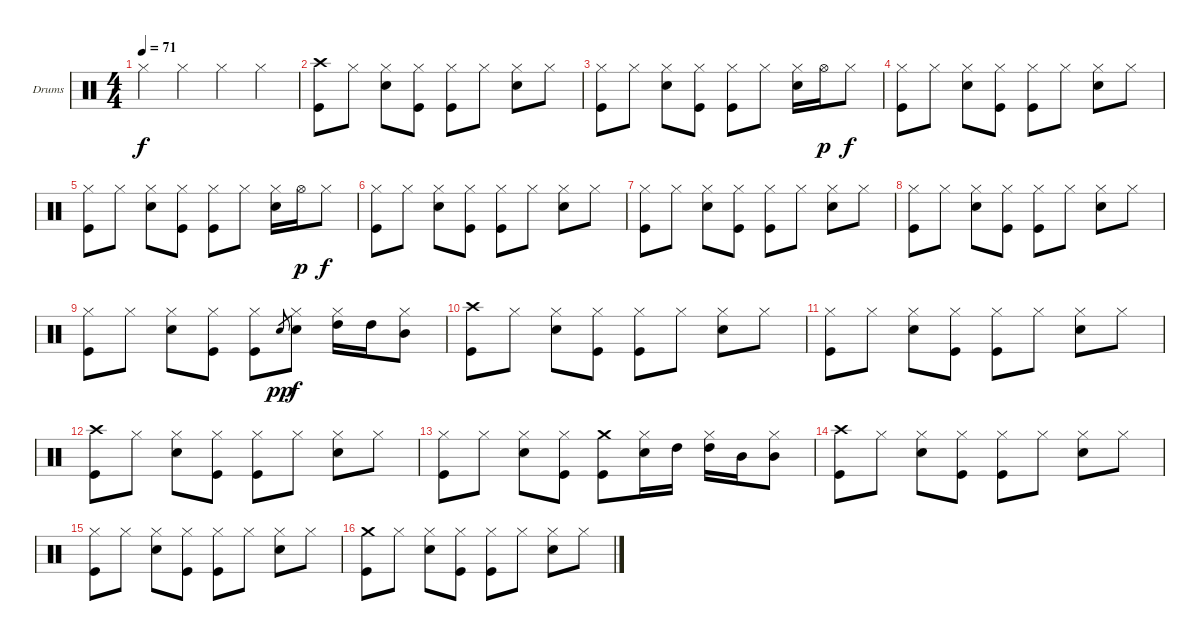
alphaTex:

\bracketExtendMode groupsimilarinstruments
\firstSystemTrackNameOrientation horizontal
\otherSystemsTrackNameOrientation horizontal
\track ("Барабаны" "Drums") {instrument percussion}
\staff {score}
\articulation defaults
\ts (4 4)
\tempo 71
\clef neutral
\scale
0.333333
\ks c "Hi-Hat (closed)".4{dy f} "Hi-Hat (closed)".4 "Hi-Hat (closed)".4 "Hi-Hat (closed)".4
|
\scale
0.333333 ("Crash high (hit)" "Kick (hit)").8 "Hi-Hat (closed)".8 ("Hi-Hat (closed)" "Snare (hit) 2").8 ("Hi-Hat (closed)" "Kick (hit)").8 ("Hi-Hat (closed)" "Kick (hit)").8 "Hi-Hat (closed)".8 ("Hi-Hat (closed)" "Snare (hit) 2").8 "Hi-Hat (closed)".8 |
\scale
0.333333 ("Hi-Hat (closed)" "Kick (hit)").8 "Hi-Hat (closed)".8 ("Hi-Hat (closed)" "Snare (hit) 2").8 ("Hi-Hat (closed)" "Kick (hit)").8 ("Hi-Hat (closed)" "Kick (hit)").8 "Hi-Hat (closed)".8 ("Hi-Hat (closed)" "Snare (hit) 2").16 "Hi-Hat (open)".16{dy p} "Hi-Hat (closed)".8{dy f} |
\scale
0.333333 ("Hi-Hat (closed)" "Kick (hit)").8 "Hi-Hat (closed)".8 ("Hi-Hat (closed)" "Snare (hit) 2").8 ("Hi-Hat (closed)" "Kick (hit)").8 ("Hi-Hat (closed)" "Kick (hit)").8 "Hi-Hat (closed)".8 ("Hi-Hat (closed)" "Snare (hit) 2").8 "Hi-Hat (closed)".8 |
\scale
0.333333 ("Hi-Hat (closed)" "Kick (hit)").8 "Hi-Hat (closed)".8 ("Hi-Hat (closed)" "Snare (hit) 2").8 ("Hi-Hat (closed)" "Kick (hit)").8 ("Hi-Hat (closed)" "Kick (hit)").8 "Hi-Hat (closed)".8 ("Hi-Hat (closed)" "Snare (hit) 2").16 "Hi-Hat (open)".16{dy p} "Hi-Hat (closed)".8{dy f} |
\scale
0.333333 ("Hi-Hat (closed)" "Kick (hit)").8 "Hi-Hat (closed)".8 ("Hi-Hat (closed)" "Snare (hit) 2").8 ("Hi-Hat (closed)" "Kick (hit)").8 ("Hi-Hat (closed)" "Kick (hit)").8 "Hi-Hat (closed)".8 ("Hi-Hat (closed)" "Snare (hit) 2").8 "Hi-Hat (closed)".8 |
\scale
0.333333 ("Hi-Hat (closed)" "Kick (hit)").8 "Hi-Hat (closed)".8 ("Hi-Hat (closed)" "Snare (hit) 2").8 ("Hi-Hat (closed)" "Kick (hit)").8 ("Hi-Hat (closed)" "Kick (hit)").8 "Hi-Hat (closed)".8 ("Hi-Hat (closed)" "Snare (hit) 2").8 "Hi-Hat (closed)".8 |
\scale
0.333333 ("Hi-Hat (closed)" "Kick (hit)").8 "Hi-Hat (closed)".8 ("Hi-Hat (closed)" "Snare (hit) 2").8 ("Hi-Hat (closed)" "Kick (hit)").8 ("Hi-Hat (closed)" "Kick (hit)").8 "Hi-Hat (closed)".8 ("Hi-Hat (closed)" "Snare (hit) 2").8 "Hi-Hat (closed)".8 |
\scale
0.333333 ("Hi-Hat (closed)" "Kick (hit)").8 "Hi-Hat (closed)".8 ("Hi-Hat (closed)" "Snare (hit) 2").8 ("Hi-Hat (closed)" "Kick (hit)").8 ("Hi-Hat (closed)" "Kick (hit)").8 "Snare (hit) 2".8{gr dy pp} ("Hi-Hat (closed)" "Snare (hit) 2").8{dy f} ("Hi-Hat (closed)" "High Tom (hit)").16 "High Tom (hit)".16 ("Hi-Hat (closed)" "Mid Tom (hit)").8 |
\scale
0.333333 ("Crash high (hit)" "Kick (hit)").8 "Hi-Hat (closed)".8 ("Hi-Hat (closed)" "Snare (hit) 2").8 ("Hi-Hat (closed)" "Kick (hit)").8 ("Hi-Hat (closed)" "Kick (hit)").8 "Hi-Hat (closed)".8 ("Hi-Hat (closed)" "Snare (hit) 2").8 "Hi-Hat (closed)".8 |
\scale
0.333333 ("Hi-Hat (closed)" "Kick (hit)").8 "Hi-Hat (closed)".8 ("Hi-Hat (closed)" "Snare (hit) 2").8 ("Hi-Hat (closed)" "Kick (hit)").8 ("Hi-Hat (closed)" "Kick (hit)").8 "Hi-Hat (closed)".8 ("Hi-Hat (closed)" "Snare (hit) 2").8 "Hi-Hat (closed)".8 |
\scale
0.333333 ("Crash high (hit)" "Kick (hit)").8 "Hi-Hat (closed)".8 ("Hi-Hat (closed)" "Snare (hit) 2").8 ("Hi-Hat (closed)" "Kick (hit)").8 ("Hi-Hat (closed)" "Kick (hit)").8 "Hi-Hat (closed)".8 ("Hi-Hat (closed)" "Snare (hit) 2").8 "Hi-Hat (closed)".8 |
\scale
0.333333 ("Hi-Hat (closed)" "Kick (hit)").8 "Hi-Hat (closed)".8 ("Hi-Hat (closed)" "Snare (hit) 2").8 ("Hi-Hat (closed)" "Kick (hit)").8 ("Crash medium (hit)" "Kick (hit)").8 ("Hi-Hat (closed)" "Snare (hit) 2").16 "High Tom (hit)".16 ("Hi-Hat (closed)" "High Tom (hit)").16 "Mid Tom (hit)".16 ("Hi-Hat (closed)" "Mid Tom (hit)").8 |
\scale
0.333333 ("Crash high (hit)" "Kick (hit)").8 "Hi-Hat (closed)".8 ("Hi-Hat (closed)" "Snare (hit) 2").8 ("Hi-Hat (closed)" "Kick (hit)").8 ("Hi-Hat (closed)" "Kick (hit)").8 "Hi-Hat (closed)".8 ("Hi-Hat (closed)" "Snare (hit) 2").8 "Hi-Hat (closed)".8 |
\scale
0.333333 ("Hi-Hat (closed)" "Kick (hit)").8 "Hi-Hat (closed)".8 ("Hi-Hat (closed)" "Snare (hit) 2").8 ("Hi-Hat (closed)" "Kick (hit)").8 ("Hi-Hat (closed)" "Kick (hit)").8 "Hi-Hat (closed)".8 ("Hi-Hat (closed)" "Snare (hit) 2").8 "Hi-Hat (closed)".8 |
\scale
0.333333 ("Crash medium (hit)" "Kick (hit)").8 "Hi-Hat (closed)".8 ("Hi-Hat (closed)" "Snare (hit) 2").8 ("Hi-Hat (closed)" "Kick (hit)").8 ("Hi-Hat (closed)" "Kick (hit)").8 "Hi-Hat (closed)".8 ("Hi-Hat (closed)" "Snare (hit) 2").8 "Hi-Hat (closed)".8
